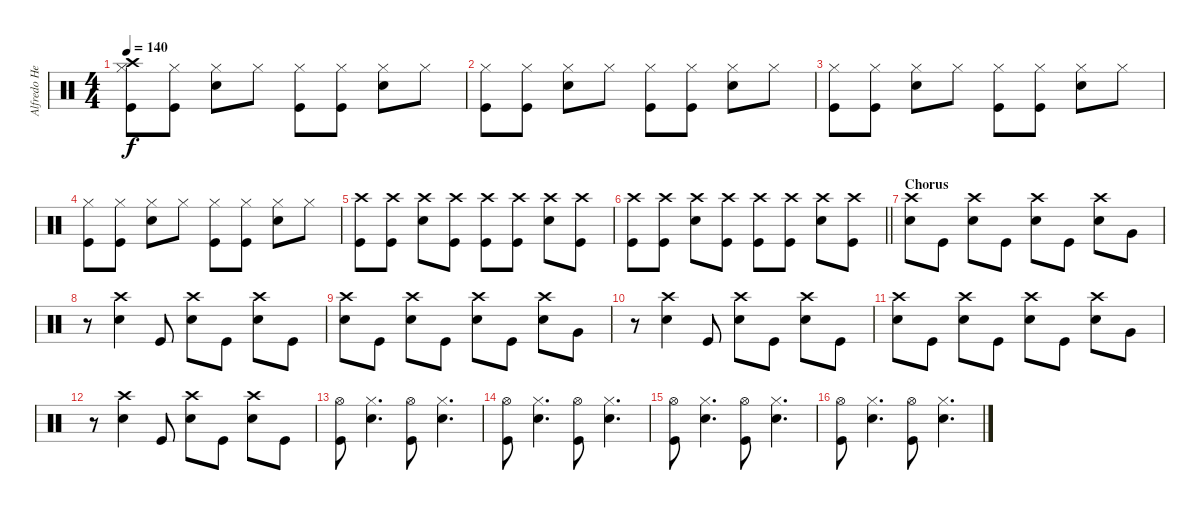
\track ("Alfredo Hernandez - Percussion" "Alfredo He") {instrument percussion}
\staff {score}
\articulation defaults
\ts (4 4)
\tempo 140
\clef neutral
\ks c
("Kick (hit)" "Hi-Hat (closed)" "Crash high (hit)").8{dy f} ("Kick (hit)" "Hi-Hat (closed)").8 ("Snare (hit) 2" "Hi-Hat (closed)").8 "Hi-Hat (closed)".8 ("Kick (hit)" "Hi-Hat (closed)").8 ("Kick (hit)" "Hi-Hat (closed)").8 ("Snare (hit) 2" "Hi-Hat (closed)").8 "Hi-Hat (closed)".8 |
("Kick (hit)" "Hi-Hat (closed)").8 ("Kick (hit)" "Hi-Hat (closed)").8 ("Snare (hit) 2" "Hi-Hat (closed)").8 "Hi-Hat (closed)".8 ("Kick (hit)" "Hi-Hat (closed)").8 ("Kick (hit)" "Hi-Hat (closed)").8 ("Snare (hit) 2" "Hi-Hat (closed)").8 "Hi-Hat (closed)".8 |
("Kick (hit)" "Hi-Hat (closed)").8 ("Kick (hit)" "Hi-Hat (closed)").8 ("Snare (hit) 2" "Hi-Hat (closed)").8 "Hi-Hat (closed)".8 ("Kick (hit)" "Hi-Hat (closed)").8 ("Kick (hit)" "Hi-Hat (closed)").8 ("Snare (hit) 2" "Hi-Hat (closed)").8 "Hi-Hat (closed)".8 |
("Kick (hit)" "Hi-Hat (closed)").8 ("Kick (hit)" "Hi-Hat (closed)").8 ("Snare (hit) 2" "Hi-Hat (closed)").8 "Hi-Hat (closed)".8 ("Kick (hit)" "Hi-Hat (closed)").8 ("Kick (hit)" "Hi-Hat (closed)").8 ("Snare (hit) 2" "Hi-Hat (closed)").8 "Hi-Hat (closed)".8 |
("Kick (hit)" "Crash high (hit)").8 ("Kick (hit)" "Crash high (hit)").8 ("Snare (hit) 2" "Crash high (hit)").8 ("Kick (hit)" "Crash high (hit)").8 ("Kick (hit)" "Crash high (hit)").8 ("Kick (hit)" "Crash high (hit)").8 ("Snare (hit) 2" "Crash high (hit)").8 ("Kick (hit)" "Crash high (hit)").8 |
\barLineRight lightlight
("Kick (hit)" "Crash high (hit)").8 ("Kick (hit)" "Crash high (hit)").8 ("Snare (hit) 2" "Crash high (hit)").8 ("Kick (hit)" "Crash high (hit)").8 ("Kick (hit)" "Crash high (hit)").8 ("Kick (hit)" "Crash high (hit)").8 ("Snare (hit) 2" "Crash high (hit)").8 ("Kick (hit)" "Crash high (hit)").8 |
\section ("" "Chorus")
("Snare (hit) 2" "Crash high (hit)").8 "Kick (hit)".8 ("Snare (hit) 2" "Crash high (hit)").8 "Kick (hit)".8 ("Snare (hit) 2" "Crash high (hit)").8 "Kick (hit)".8 ("Snare (hit) 2" "Crash high (hit)").8 "Very Low Tom (hit)".8 |
r.8 ("Snare (hit) 2" "Crash high (hit)").4 "Kick (hit)".8 ("Snare (hit) 2" "Crash high (hit)").8 "Kick (hit)".8 ("Snare (hit) 2" "Crash high (hit)").8 "Kick (hit)".8 |
("Snare (hit) 2" "Crash high (hit)").8 "Kick (hit)".8 ("Snare (hit) 2" "Crash high (hit)").8 "Kick (hit)".8 ("Snare (hit) 2" "Crash high (hit)").8 "Kick (hit)".8 ("Snare (hit) 2" "Crash high (hit)").8 "Very Low Tom (hit)".8 |
r.8 ("Snare (hit) 2" "Crash high (hit)").4 "Kick (hit)".8 ("Snare (hit) 2" "Crash high (hit)").8 "Kick (hit)".8 ("Snare (hit) 2" "Crash high (hit)").8 "Kick (hit)".8 |
("Snare (hit) 2" "Crash high (hit)").8 "Kick (hit)".8 ("Snare (hit) 2" "Crash high (hit)").8 "Kick (hit)".8 ("Snare (hit) 2" "Crash high (hit)").8 "Kick (hit)".8 ("Snare (hit) 2" "Crash high (hit)").8 "Very Low Tom (hit)".8 |
r.8 ("Snare (hit) 2" "Crash high (hit)").4 "Kick (hit)".8 ("Snare (hit) 2" "Crash high (hit)").8 "Kick (hit)".8 ("Snare (hit) 2" "Crash high (hit)").8 "Kick (hit)".8 |
("Kick (hit)" "Hi-Hat (open)").8 ("Snare (hit) 2" "Hi-Hat (closed)").4{d} ("Kick (hit)" "Hi-Hat (open)").8 ("Snare (hit) 2" "Hi-Hat (closed)").4{d} |
("Kick (hit)" "Hi-Hat (open)").8 ("Snare (hit) 2" "Hi-Hat (closed)").4{d} ("Kick (hit)" "Hi-Hat (open)").8 ("Snare (hit) 2" "Hi-Hat (closed)").4{d} |
("Kick (hit)" "Hi-Hat (open)").8 ("Snare (hit) 2" "Hi-Hat (closed)").4{d} ("Kick (hit)" "Hi-Hat (open)").8 ("Snare (hit) 2" "Hi-Hat (closed)").4{d} |
("Kick (hit)" "Hi-Hat (open)").8 ("Snare (hit) 2" "Hi-Hat (closed)").4{d} ("Kick (hit)" "Hi-Hat (open)").8 ("Snare (hit) 2" "Hi-Hat (closed)").4{d}
